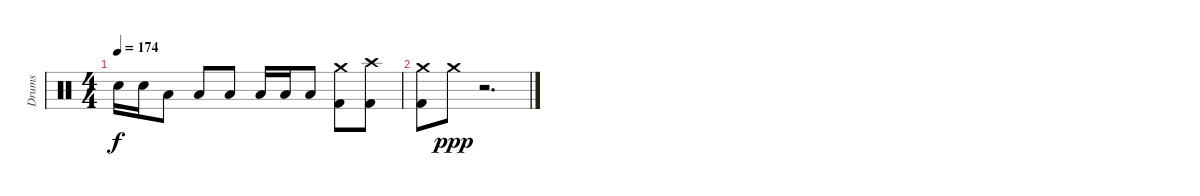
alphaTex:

\track ("Drums" "Drums") {instrument percussion}
\staff {score}
\articulation defaults
\ts (4 4)
\tempo 174
\clef neutral
\ks c "Electric Snare (hit)".16{dy f} "Electric Snare (hit)".16 "Low Tom (hit)".8 "Low Tom (hit)".8 "Low Tom (hit)".8 "Low Tom (hit)".16 "Low Tom (hit)".16 "Low Tom (hit)".8
("Crash medium (hit)" "Kick (hit) 2").8 ("Crash high (hit)" "Kick (hit) 2").8 |
("Crash medium (hit)" "Kick (hit) 2").8 "Crash medium (hit)".8{dy ppp} r.2{d}
